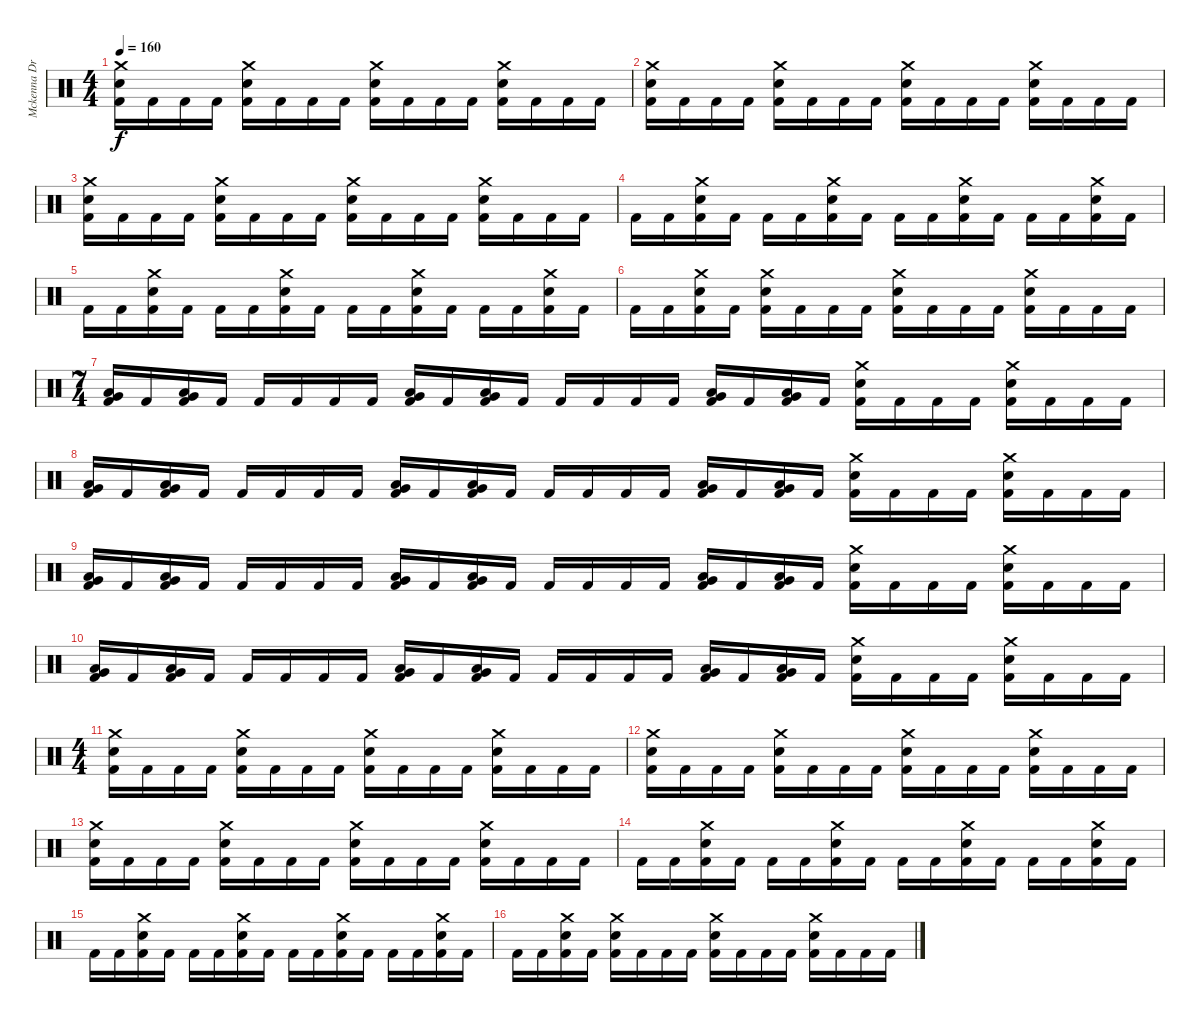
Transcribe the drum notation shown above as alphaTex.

\track ("Mckenna Drums" "Mckenna Dr") {instrument percussion}
\staff {score}
\articulation defaults
\ts (4 4)
\tempo 160
\clef neutral
\ks c
("Crash medium (hit)" "Electric Snare (hit)" "Kick (hit) 2").16{dy f} "Kick (hit) 2".16 "Kick (hit) 2".16 "Kick (hit) 2".16 ("Crash medium (hit)" "Electric Snare (hit)" "Kick (hit) 2").16 "Kick (hit) 2".16 "Kick (hit) 2".16 "Kick (hit) 2".16 ("Crash medium (hit)" "Electric Snare (hit)" "Kick (hit) 2").16 "Kick (hit) 2".16 "Kick (hit) 2".16 "Kick (hit) 2".16 ("Crash medium (hit)" "Electric Snare (hit)" "Kick (hit) 2").16 "Kick (hit) 2".16 "Kick (hit) 2".16 "Kick (hit) 2".16 |
("Crash medium (hit)" "Electric Snare (hit)" "Kick (hit) 2").16 "Kick (hit) 2".16 "Kick (hit) 2".16 "Kick (hit) 2".16 ("Crash medium (hit)" "Electric Snare (hit)" "Kick (hit) 2").16 "Kick (hit) 2".16 "Kick (hit) 2".16 "Kick (hit) 2".16 ("Crash medium (hit)" "Electric Snare (hit)" "Kick (hit) 2").16 "Kick (hit) 2".16 "Kick (hit) 2".16 "Kick (hit) 2".16 ("Crash medium (hit)" "Electric Snare (hit)" "Kick (hit) 2").16 "Kick (hit) 2".16 "Kick (hit) 2".16 "Kick (hit) 2".16 |
("Crash medium (hit)" "Electric Snare (hit)" "Kick (hit) 2").16 "Kick (hit) 2".16 "Kick (hit) 2".16 "Kick (hit) 2".16 ("Crash medium (hit)" "Electric Snare (hit)" "Kick (hit) 2").16 "Kick (hit) 2".16 "Kick (hit) 2".16 "Kick (hit) 2".16 ("Crash medium (hit)" "Electric Snare (hit)" "Kick (hit) 2").16 "Kick (hit) 2".16 "Kick (hit) 2".16 "Kick (hit) 2".16 ("Crash medium (hit)" "Electric Snare (hit)" "Kick (hit) 2").16 "Kick (hit) 2".16 "Kick (hit) 2".16 "Kick (hit) 2".16 |
"Kick (hit) 2".16 "Kick (hit) 2".16 ("Crash medium (hit)" "Electric Snare (hit)" "Kick (hit) 2").16 "Kick (hit) 2".16 "Kick (hit) 2".16 "Kick (hit) 2".16 ("Crash medium (hit)" "Electric Snare (hit)" "Kick (hit) 2").16 "Kick (hit) 2".16 "Kick (hit) 2".16 "Kick (hit) 2".16 ("Crash medium (hit)" "Electric Snare (hit)" "Kick (hit) 2").16 "Kick (hit) 2".16 "Kick (hit) 2".16 "Kick (hit) 2".16 ("Crash medium (hit)" "Electric Snare (hit)" "Kick (hit) 2").16 "Kick (hit) 2".16 |
"Kick (hit) 2".16 "Kick (hit) 2".16 ("Crash medium (hit)" "Electric Snare (hit)" "Kick (hit) 2").16 "Kick (hit) 2".16 "Kick (hit) 2".16 "Kick (hit) 2".16 ("Crash medium (hit)" "Electric Snare (hit)" "Kick (hit) 2").16 "Kick (hit) 2".16 "Kick (hit) 2".16 "Kick (hit) 2".16 ("Crash medium (hit)" "Electric Snare (hit)" "Kick (hit) 2").16 "Kick (hit) 2".16 "Kick (hit) 2".16 "Kick (hit) 2".16 ("Crash medium (hit)" "Electric Snare (hit)" "Kick (hit) 2").16 "Kick (hit) 2".16 |
"Kick (hit) 2".16 "Kick (hit) 2".16 ("Crash medium (hit)" "Electric Snare (hit)" "Kick (hit) 2").16 "Kick (hit) 2".16 ("Crash medium (hit)" "Electric Snare (hit)" "Kick (hit) 2").16 "Kick (hit) 2".16 "Kick (hit) 2".16 "Kick (hit) 2".16 ("Crash medium (hit)" "Electric Snare (hit)" "Kick (hit) 2").16 "Kick (hit) 2".16 "Kick (hit) 2".16 "Kick (hit) 2".16 ("Crash medium (hit)" "Electric Snare (hit)" "Kick (hit) 2").16 "Kick (hit) 2".16 "Kick (hit) 2".16 "Kick (hit) 2".16 |
\ts (7 4)
("Very Low Tom (hit)" "Low Tom (hit)" "Kick (hit) 2").16 "Kick (hit) 2".16 ("Very Low Tom (hit)" "Low Tom (hit)" "Kick (hit) 2").16 "Kick (hit) 2".16 "Kick (hit) 2".16 "Kick (hit) 2".16 "Kick (hit) 2".16 "Kick (hit) 2".16 ("Very Low Tom (hit)" "Low Tom (hit)" "Kick (hit) 2").16 "Kick (hit) 2".16 ("Very Low Tom (hit)" "Low Tom (hit)" "Kick (hit) 2").16 "Kick (hit) 2".16 "Kick (hit) 2".16 "Kick (hit) 2".16 "Kick (hit) 2".16 "Kick (hit) 2".16 ("Very Low Tom (hit)" "Low Tom (hit)" "Kick (hit) 2").16 "Kick (hit) 2".16 ("Very Low Tom (hit)" "Low Tom (hit)" "Kick (hit) 2").16 "Kick (hit) 2".16 ("Crash medium (hit)" "Electric Snare (hit)" "Kick (hit) 2").16 "Kick (hit) 2".16 "Kick (hit) 2".16 "Kick (hit) 2".16 ("Crash medium (hit)" "Electric Snare (hit)" "Kick (hit) 2").16 "Kick (hit) 2".16 "Kick (hit) 2".16 "Kick (hit) 2".16 |
("Very Low Tom (hit)" "Low Tom (hit)" "Kick (hit) 2").16 "Kick (hit) 2".16 ("Very Low Tom (hit)" "Low Tom (hit)" "Kick (hit) 2").16 "Kick (hit) 2".16 "Kick (hit) 2".16 "Kick (hit) 2".16 "Kick (hit) 2".16 "Kick (hit) 2".16 ("Very Low Tom (hit)" "Low Tom (hit)" "Kick (hit) 2").16 "Kick (hit) 2".16 ("Very Low Tom (hit)" "Low Tom (hit)" "Kick (hit) 2").16 "Kick (hit) 2".16 "Kick (hit) 2".16 "Kick (hit) 2".16 "Kick (hit) 2".16 "Kick (hit) 2".16 ("Very Low Tom (hit)" "Low Tom (hit)" "Kick (hit) 2").16 "Kick (hit) 2".16 ("Very Low Tom (hit)" "Low Tom (hit)" "Kick (hit) 2").16 "Kick (hit) 2".16 ("Crash medium (hit)" "Electric Snare (hit)" "Kick (hit) 2").16 "Kick (hit) 2".16 "Kick (hit) 2".16 "Kick (hit) 2".16 ("Crash medium (hit)" "Electric Snare (hit)" "Kick (hit) 2").16 "Kick (hit) 2".16 "Kick (hit) 2".16 "Kick (hit) 2".16 |
("Very Low Tom (hit)" "Low Tom (hit)" "Kick (hit) 2").16 "Kick (hit) 2".16 ("Very Low Tom (hit)" "Low Tom (hit)" "Kick (hit) 2").16 "Kick (hit) 2".16 "Kick (hit) 2".16 "Kick (hit) 2".16 "Kick (hit) 2".16 "Kick (hit) 2".16 ("Very Low Tom (hit)" "Low Tom (hit)" "Kick (hit) 2").16 "Kick (hit) 2".16 ("Very Low Tom (hit)" "Low Tom (hit)" "Kick (hit) 2").16 "Kick (hit) 2".16 "Kick (hit) 2".16 "Kick (hit) 2".16 "Kick (hit) 2".16 "Kick (hit) 2".16 ("Very Low Tom (hit)" "Low Tom (hit)" "Kick (hit) 2").16 "Kick (hit) 2".16 ("Very Low Tom (hit)" "Low Tom (hit)" "Kick (hit) 2").16 "Kick (hit) 2".16 ("Crash medium (hit)" "Electric Snare (hit)" "Kick (hit) 2").16 "Kick (hit) 2".16 "Kick (hit) 2".16 "Kick (hit) 2".16 ("Crash medium (hit)" "Electric Snare (hit)" "Kick (hit) 2").16 "Kick (hit) 2".16 "Kick (hit) 2".16 "Kick (hit) 2".16 |
("Very Low Tom (hit)" "Low Tom (hit)" "Kick (hit) 2").16 "Kick (hit) 2".16 ("Very Low Tom (hit)" "Low Tom (hit)" "Kick (hit) 2").16 "Kick (hit) 2".16 "Kick (hit) 2".16 "Kick (hit) 2".16 "Kick (hit) 2".16 "Kick (hit) 2".16 ("Very Low Tom (hit)" "Low Tom (hit)" "Kick (hit) 2").16 "Kick (hit) 2".16 ("Very Low Tom (hit)" "Low Tom (hit)" "Kick (hit) 2").16 "Kick (hit) 2".16 "Kick (hit) 2".16 "Kick (hit) 2".16 "Kick (hit) 2".16 "Kick (hit) 2".16 ("Very Low Tom (hit)" "Low Tom (hit)" "Kick (hit) 2").16 "Kick (hit) 2".16 ("Very Low Tom (hit)" "Low Tom (hit)" "Kick (hit) 2").16 "Kick (hit) 2".16 ("Crash medium (hit)" "Electric Snare (hit)" "Kick (hit) 2").16 "Kick (hit) 2".16 "Kick (hit) 2".16 "Kick (hit) 2".16 ("Crash medium (hit)" "Electric Snare (hit)" "Kick (hit) 2").16 "Kick (hit) 2".16 "Kick (hit) 2".16 "Kick (hit) 2".16 |
\ts (4 4)
("Crash medium (hit)" "Electric Snare (hit)" "Kick (hit) 2").16 "Kick (hit) 2".16 "Kick (hit) 2".16 "Kick (hit) 2".16 ("Crash medium (hit)" "Electric Snare (hit)" "Kick (hit) 2").16 "Kick (hit) 2".16 "Kick (hit) 2".16 "Kick (hit) 2".16 ("Crash medium (hit)" "Electric Snare (hit)" "Kick (hit) 2").16 "Kick (hit) 2".16 "Kick (hit) 2".16 "Kick (hit) 2".16 ("Crash medium (hit)" "Electric Snare (hit)" "Kick (hit) 2").16 "Kick (hit) 2".16 "Kick (hit) 2".16 "Kick (hit) 2".16 |
("Crash medium (hit)" "Electric Snare (hit)" "Kick (hit) 2").16 "Kick (hit) 2".16 "Kick (hit) 2".16 "Kick (hit) 2".16 ("Crash medium (hit)" "Electric Snare (hit)" "Kick (hit) 2").16 "Kick (hit) 2".16 "Kick (hit) 2".16 "Kick (hit) 2".16 ("Crash medium (hit)" "Electric Snare (hit)" "Kick (hit) 2").16 "Kick (hit) 2".16 "Kick (hit) 2".16 "Kick (hit) 2".16 ("Crash medium (hit)" "Electric Snare (hit)" "Kick (hit) 2").16 "Kick (hit) 2".16 "Kick (hit) 2".16 "Kick (hit) 2".16 |
("Crash medium (hit)" "Electric Snare (hit)" "Kick (hit) 2").16 "Kick (hit) 2".16 "Kick (hit) 2".16 "Kick (hit) 2".16 ("Crash medium (hit)" "Electric Snare (hit)" "Kick (hit) 2").16 "Kick (hit) 2".16 "Kick (hit) 2".16 "Kick (hit) 2".16 ("Crash medium (hit)" "Electric Snare (hit)" "Kick (hit) 2").16 "Kick (hit) 2".16 "Kick (hit) 2".16 "Kick (hit) 2".16 ("Crash medium (hit)" "Electric Snare (hit)" "Kick (hit) 2").16 "Kick (hit) 2".16 "Kick (hit) 2".16 "Kick (hit) 2".16 |
"Kick (hit) 2".16 "Kick (hit) 2".16 ("Crash medium (hit)" "Electric Snare (hit)" "Kick (hit) 2").16 "Kick (hit) 2".16 "Kick (hit) 2".16 "Kick (hit) 2".16 ("Crash medium (hit)" "Electric Snare (hit)" "Kick (hit) 2").16 "Kick (hit) 2".16 "Kick (hit) 2".16 "Kick (hit) 2".16 ("Crash medium (hit)" "Electric Snare (hit)" "Kick (hit) 2").16 "Kick (hit) 2".16 "Kick (hit) 2".16 "Kick (hit) 2".16 ("Crash medium (hit)" "Electric Snare (hit)" "Kick (hit) 2").16 "Kick (hit) 2".16 |
"Kick (hit) 2".16 "Kick (hit) 2".16 ("Crash medium (hit)" "Electric Snare (hit)" "Kick (hit) 2").16 "Kick (hit) 2".16 "Kick (hit) 2".16 "Kick (hit) 2".16 ("Crash medium (hit)" "Electric Snare (hit)" "Kick (hit) 2").16 "Kick (hit) 2".16 "Kick (hit) 2".16 "Kick (hit) 2".16 ("Crash medium (hit)" "Electric Snare (hit)" "Kick (hit) 2").16 "Kick (hit) 2".16 "Kick (hit) 2".16 "Kick (hit) 2".16 ("Crash medium (hit)" "Electric Snare (hit)" "Kick (hit) 2").16 "Kick (hit) 2".16 |
"Kick (hit) 2".16 "Kick (hit) 2".16 ("Crash medium (hit)" "Electric Snare (hit)" "Kick (hit) 2").16 "Kick (hit) 2".16 ("Crash medium (hit)" "Electric Snare (hit)" "Kick (hit) 2").16 "Kick (hit) 2".16 "Kick (hit) 2".16 "Kick (hit) 2".16 ("Crash medium (hit)" "Electric Snare (hit)" "Kick (hit) 2").16 "Kick (hit) 2".16 "Kick (hit) 2".16 "Kick (hit) 2".16 ("Crash medium (hit)" "Electric Snare (hit)" "Kick (hit) 2").16 "Kick (hit) 2".16 "Kick (hit) 2".16 "Kick (hit) 2".16
